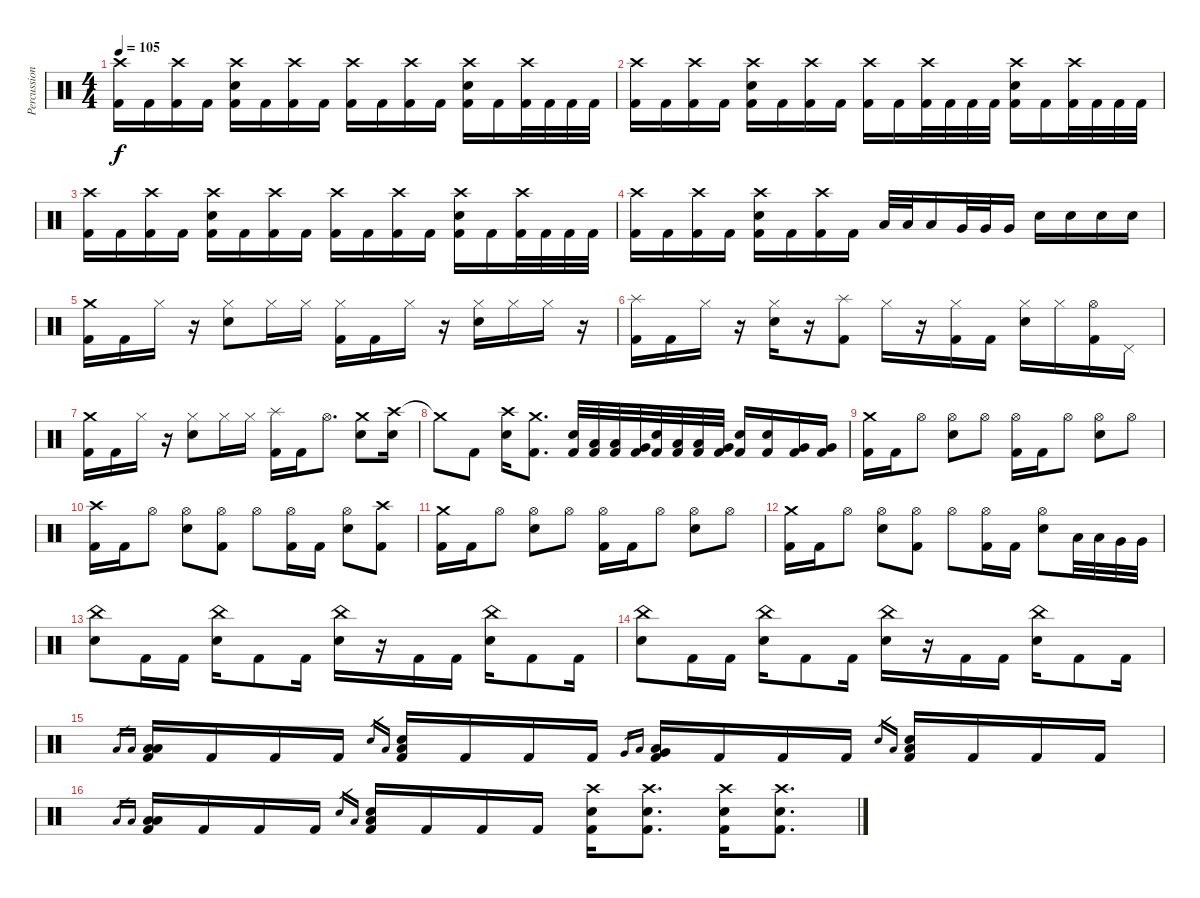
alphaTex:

\track ("Percussions" "Percussion") {instrument percussion}
\staff {score}
\articulation defaults
\ts (4 4)
\tempo 105
\clef neutral
\ks c
("Crash high (hit)" "Kick (hit) 2").16{dy f} "Kick (hit) 2".16 ("Crash high (hit)" "Kick (hit) 2").16 "Kick (hit) 2".16 ("Crash high (hit)" "Electric Snare (hit)" "Kick (hit) 2").16 "Kick (hit) 2".16 ("Crash high (hit)" "Kick (hit) 2").16 "Kick (hit) 2".16 ("Crash high (hit)" "Kick (hit) 2").16 "Kick (hit) 2".16 ("Crash high (hit)" "Kick (hit) 2").16 "Kick (hit) 2".16 ("Crash high (hit)" "Electric Snare (hit)" "Kick (hit) 2").16 "Kick (hit) 2".16 ("Crash high (hit)" "Kick (hit) 2").32 "Kick (hit) 2".32 "Kick (hit) 2".32 "Kick (hit) 2".32 |
("Crash high (hit)" "Kick (hit) 2").16 "Kick (hit) 2".16 ("Crash high (hit)" "Kick (hit) 2").16 "Kick (hit) 2".16 ("Crash high (hit)" "Electric Snare (hit)" "Kick (hit) 2").16 "Kick (hit) 2".16 ("Crash high (hit)" "Kick (hit) 2").16 "Kick (hit) 2".16 ("Crash high (hit)" "Kick (hit) 2").16 "Kick (hit) 2".16 ("Crash high (hit)" "Kick (hit) 2").32 "Kick (hit) 2".32 "Kick (hit) 2".32 "Kick (hit) 2".32 ("Crash high (hit)" "Electric Snare (hit)" "Kick (hit) 2").16 "Kick (hit) 2".16 ("Crash high (hit)" "Kick (hit) 2").32 "Kick (hit) 2".32 "Kick (hit) 2".32 "Kick (hit) 2".32 |
("Crash high (hit)" "Kick (hit) 2").16 "Kick (hit) 2".16 ("Crash high (hit)" "Kick (hit) 2").16 "Kick (hit) 2".16 ("Crash high (hit)" "Electric Snare (hit)" "Kick (hit) 2").16 "Kick (hit) 2".16 ("Crash high (hit)" "Kick (hit) 2").16 "Kick (hit) 2".16 ("Crash high (hit)" "Kick (hit) 2").16 "Kick (hit) 2".16 ("Crash high (hit)" "Kick (hit) 2").16 "Kick (hit) 2".16 ("Crash high (hit)" "Electric Snare (hit)" "Kick (hit) 2").16 "Kick (hit) 2".16 ("Crash high (hit)" "Kick (hit) 2").32 "Kick (hit) 2".32 "Kick (hit) 2".32 "Kick (hit) 2".32 |
("Crash high (hit)" "Kick (hit) 2").16 "Kick (hit) 2".16 ("Crash high (hit)" "Kick (hit) 2").16 "Kick (hit) 2".16 ("Crash high (hit)" "Electric Snare (hit)" "Kick (hit) 2").16 "Kick (hit) 2".16 ("Crash high (hit)" "Kick (hit) 2").16 "Kick (hit) 2".16 "Low Tom (hit)".32 "Low Tom (hit)".32 "Low Tom (hit)".16 "Very Low Tom (hit)".32 "Very Low Tom (hit)".32 "Very Low Tom (hit)".16 "Electric Snare (hit)".16 "Electric Snare (hit)".16 "Electric Snare (hit)".16 "Electric Snare (hit)".16 |
("Crash medium (hit)" "Kick (hit) 2").16 "Kick (hit) 2".16 "Hi-Hat (closed)".16 r.16 ("Hi-Hat (closed)" "Electric Snare (hit)").8 "Hi-Hat (closed)".16 "Hi-Hat (closed)".16 ("Hi-Hat (closed)" "Kick (hit) 2").16 "Kick (hit) 2".16 "Hi-Hat (closed)".16 r.16 ("Hi-Hat (closed)" "Electric Snare (hit)").16 "Hi-Hat (closed)".16 "Hi-Hat (closed)".16 r.16 |
("Splash (hit)" "Kick (hit) 2").16 "Kick (hit) 2".16 "Hi-Hat (closed)".16 r.16 ("Hi-Hat (closed)" "Electric Snare (hit)").16 r.16 ("Splash (hit)" "Kick (hit) 2").8 "Hi-Hat (closed)".16 r.16 ("Hi-Hat (closed)" "Kick (hit) 2").16 "Kick (hit) 2".16 ("Hi-Hat (closed)" "Electric Snare (hit)").16 "Hi-Hat (closed)".16 ("Hi-Hat (open)" "Kick (hit) 2").16 "Pedal Hi-Hat (hit)".16 |
("Crash medium (hit)" "Kick (hit) 2").16 "Kick (hit) 2".16 "Hi-Hat (closed)".16 r.16 ("Hi-Hat (closed)" "Electric Snare (hit)").8 "Hi-Hat (closed)".16 "Hi-Hat (closed)".16 ("Splash (hit)" "Kick (hit) 2").16 "Kick (hit) 2".16 "Hi-Hat (open)".8{d} ("Crash medium (hit)" "Electric Snare (hit)").8 ("Crash high (hit)" "Electric Snare (hit)").16 |
"Crash medium (hit)"{t}.8 "Kick (hit) 2".8 ("Crash high (hit)" "Electric Snare (hit)").16 ("Crash medium (hit)" "Kick (hit) 2").8{d} ("Electric Snare (hit)" "Kick (hit) 2").32 ("Low Tom (hit)" "Kick (hit) 2").32 ("Low Tom (hit)" "Kick (hit) 2").32 ("Very Low Tom (hit)" "Kick (hit) 2").32 ("Electric Snare (hit)" "Kick (hit) 2").32 ("Low Tom (hit)" "Kick (hit) 2").32 ("Low Tom (hit)" "Kick (hit) 2").32 ("Very Low Tom (hit)" "Kick (hit) 2").32 ("Electric Snare (hit)" "Kick (hit) 2").16 ("Electric Snare (hit)" "Kick (hit) 2").16 ("Very Low Tom (hit)" "Kick (hit) 2").16 ("Very Low Tom (hit)" "Kick (hit) 2").16 |
("Crash medium (hit)" "Kick (hit) 2").16 "Kick (hit) 2".16 "Hi-Hat (open)".8 ("Hi-Hat (open)" "Electric Snare (hit)").8 "Hi-Hat (open)".8 ("Hi-Hat (open)" "Kick (hit) 2").16 "Kick (hit) 2".16 "Hi-Hat (open)".8 ("Hi-Hat (open)" "Electric Snare (hit)").8 "Hi-Hat (open)".8 |
("Crash high (hit)" "Kick (hit) 2").16 "Kick (hit) 2".16 "Hi-Hat (open)".8 ("Hi-Hat (open)" "Electric Snare (hit)").8 ("Hi-Hat (open)" "Kick (hit) 2").8 "Hi-Hat (open)".8 ("Hi-Hat (open)" "Kick (hit) 2").16 "Kick (hit) 2".16 ("Hi-Hat (open)" "Electric Snare (hit)").8 ("Crash high (hit)" "Kick (hit) 2").8 |
("Crash medium (hit)" "Kick (hit) 2").16 "Kick (hit) 2".16 "Hi-Hat (open)".8 ("Hi-Hat (open)" "Electric Snare (hit)").8 "Hi-Hat (open)".8 ("Hi-Hat (open)" "Kick (hit) 2").16 "Kick (hit) 2".16 "Hi-Hat (open)".8 ("Hi-Hat (open)" "Electric Snare (hit)").8 "Hi-Hat (open)".8 |
("Crash medium (hit)" "Kick (hit) 2").16 "Kick (hit) 2".16 "Hi-Hat (open)".8 ("Hi-Hat (open)" "Electric Snare (hit)").8 ("Hi-Hat (open)" "Kick (hit) 2").8 "Hi-Hat (open)".8 ("Hi-Hat (open)" "Kick (hit) 2").16 "Kick (hit) 2".16 ("Hi-Hat (open)" "Electric Snare (hit)").8 "Low Tom (hit)".32 "Low Tom (hit)".32 "Very Low Tom (hit)".32 "Very Low Tom (hit)".32 |
("China (hit)" "Electric Snare (hit)").8 "Kick (hit) 2".16 "Kick (hit) 2".16 ("China (hit)" "Electric Snare (hit)").16 "Kick (hit) 2".8 "Kick (hit) 2".16 ("China (hit)" "Electric Snare (hit)").16 r.16 "Kick (hit) 2".16 "Kick (hit) 2".16 ("China (hit)" "Electric Snare (hit)").16 "Kick (hit) 2".8 "Kick (hit) 2".16 |
("China (hit)" "Electric Snare (hit)").8 "Kick (hit) 2".16 "Kick (hit) 2".16 ("China (hit)" "Electric Snare (hit)").16 "Kick (hit) 2".8 "Kick (hit) 2".16 ("China (hit)" "Electric Snare (hit)").16 r.16 "Kick (hit) 2".16 "Kick (hit) 2".16 ("China (hit)" "Electric Snare (hit)").16 "Kick (hit) 2".8 "Kick (hit) 2".16 |
"Low Tom (hit)".16{gr} "Low Floor Tom (hit)".16{gr} ("Low Tom (hit)" "Low Floor Tom (hit)" "Kick (hit) 2").16 "Kick (hit) 2".16 "Kick (hit) 2".16 "Kick (hit) 2".16 "Electric Snare (hit)".16{gr} "Low Floor Tom (hit)".16{gr} ("Electric Snare (hit)" "Low Floor Tom (hit)" "Kick (hit) 2").16 "Kick (hit) 2".16 "Kick (hit) 2".16 "Kick (hit) 2".16 "Very Low Tom (hit)".16{gr} "Low Floor Tom (hit)".16{gr} ("Very Low Tom (hit)" "Low Floor Tom (hit)" "Kick (hit) 2").16 "Kick (hit) 2".16 "Kick (hit) 2".16 "Kick (hit) 2".16 "Electric Snare (hit)".16{gr} "Low Floor Tom (hit)".16{gr} ("Electric Snare (hit)" "Low Floor Tom (hit)" "Kick (hit) 2").16 "Kick (hit) 2".16 "Kick (hit) 2".16 "Kick (hit) 2".16 |
"Low Tom (hit)".16{gr} "Low Floor Tom (hit)".16{gr} ("Low Tom (hit)" "Low Floor Tom (hit)" "Kick (hit) 2").16 "Kick (hit) 2".16 "Kick (hit) 2".16 "Kick (hit) 2".16 "Electric Snare (hit)".16{gr} "Low Floor Tom (hit)".16{gr} ("Electric Snare (hit)" "Low Floor Tom (hit)" "Kick (hit) 2").16 "Kick (hit) 2".16 "Kick (hit) 2".16 "Kick (hit) 2".16 ("Crash high (hit)" "Electric Snare (hit)" "Kick (hit) 2").16 ("Crash high (hit)" "Electric Snare (hit)" "Kick (hit) 2").8{d} ("Crash high (hit)" "Electric Snare (hit)" "Kick (hit) 2").16 ("Crash high (hit)" "Electric Snare (hit)" "Kick (hit) 2").8{d}
